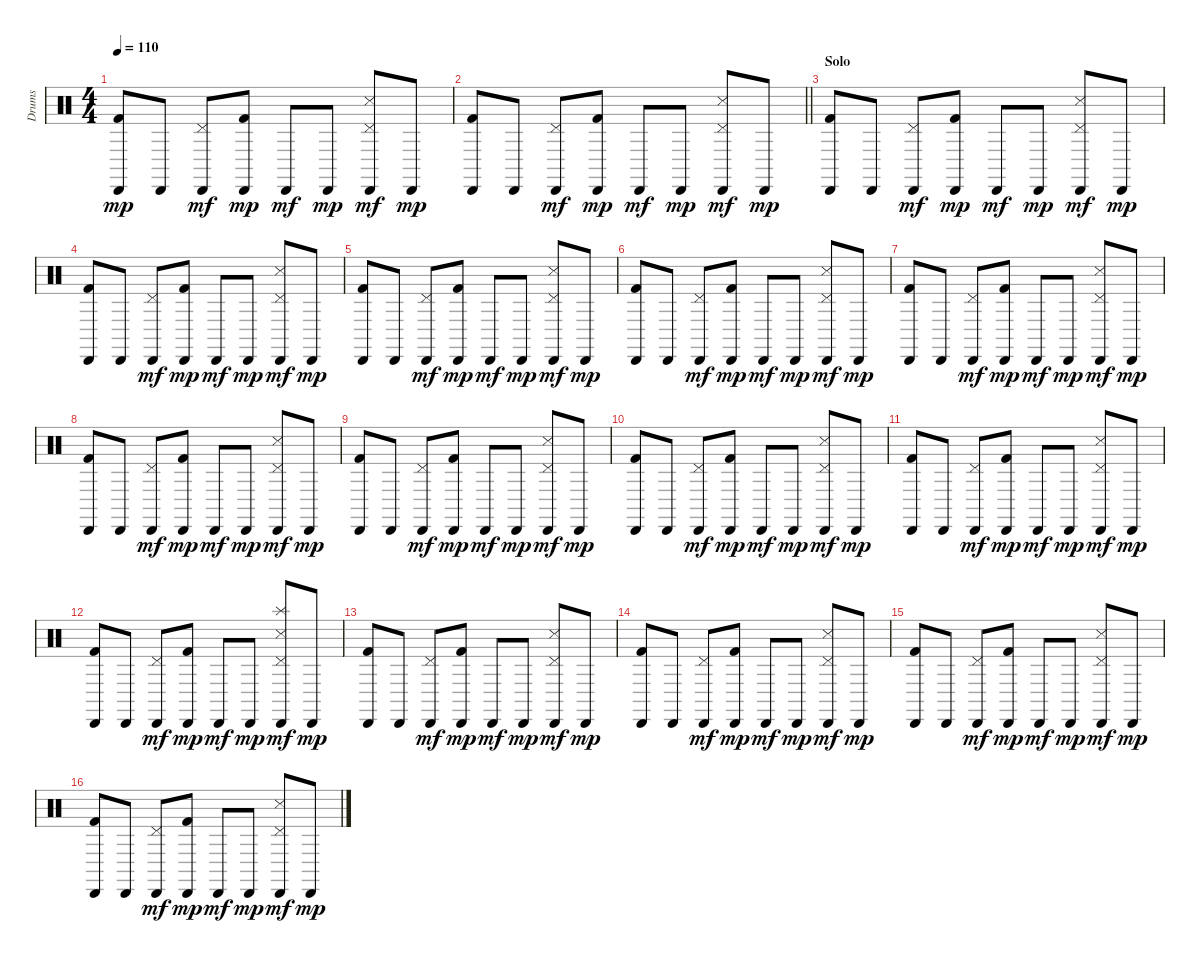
\track ("Drums" "Drums") {instrument percussion}
\staff {score}
\articulation defaults
\ts (4 4)
\tempo 110
\clef neutral
\ks c
("Cabasa (hit)" "Kick (hit) 2").8{dy mp} "Cabasa (hit)".8 ("Cabasa (hit)" "Pedal Hi-Hat (hit)").8{dy mf} ("Cabasa (hit)" "Kick (hit) 2").8{dy mp} "Cabasa (hit)".8{dy mf} "Cabasa (hit)".8{dy mp} ("Cabasa (hit)" "Pedal Hi-Hat (hit)" "Snare (side stick) 3").8{dy mf} "Cabasa (hit)".8{dy mp} |
\barLineRight lightlight
("Cabasa (hit)" "Kick (hit) 2").8 "Cabasa (hit)".8 ("Cabasa (hit)" "Pedal Hi-Hat (hit)").8{dy mf} ("Cabasa (hit)" "Kick (hit) 2").8{dy mp} "Cabasa (hit)".8{dy mf} "Cabasa (hit)".8{dy mp} ("Cabasa (hit)" "Pedal Hi-Hat (hit)" "Snare (side stick) 3").8{dy mf} "Cabasa (hit)".8{dy mp} |
\section ("" "Solo")
("Cabasa (hit)" "Kick (hit) 2").8 "Cabasa (hit)".8 ("Cabasa (hit)" "Pedal Hi-Hat (hit)").8{dy mf} ("Cabasa (hit)" "Kick (hit) 2").8{dy mp} "Cabasa (hit)".8{dy mf} "Cabasa (hit)".8{dy mp} ("Cabasa (hit)" "Pedal Hi-Hat (hit)" "Snare (side stick) 3").8{dy mf} "Cabasa (hit)".8{dy mp} |
("Cabasa (hit)" "Kick (hit) 2").8 "Cabasa (hit)".8 ("Cabasa (hit)" "Pedal Hi-Hat (hit)").8{dy mf} ("Cabasa (hit)" "Kick (hit) 2").8{dy mp} "Cabasa (hit)".8{dy mf} "Cabasa (hit)".8{dy mp} ("Cabasa (hit)" "Pedal Hi-Hat (hit)" "Snare (side stick) 3").8{dy mf} "Cabasa (hit)".8{dy mp} |
("Cabasa (hit)" "Kick (hit) 2").8 "Cabasa (hit)".8 ("Cabasa (hit)" "Pedal Hi-Hat (hit)").8{dy mf} ("Cabasa (hit)" "Kick (hit) 2").8{dy mp} "Cabasa (hit)".8{dy mf} "Cabasa (hit)".8{dy mp} ("Cabasa (hit)" "Pedal Hi-Hat (hit)" "Snare (side stick) 3").8{dy mf} "Cabasa (hit)".8{dy mp} |
("Cabasa (hit)" "Kick (hit) 2").8 "Cabasa (hit)".8 ("Cabasa (hit)" "Pedal Hi-Hat (hit)").8{dy mf} ("Cabasa (hit)" "Kick (hit) 2").8{dy mp} "Cabasa (hit)".8{dy mf} "Cabasa (hit)".8{dy mp} ("Cabasa (hit)" "Pedal Hi-Hat (hit)" "Snare (side stick) 3").8{dy mf} "Cabasa (hit)".8{dy mp} |
("Cabasa (hit)" "Kick (hit) 2").8 "Cabasa (hit)".8 ("Cabasa (hit)" "Pedal Hi-Hat (hit)").8{dy mf} ("Cabasa (hit)" "Kick (hit) 2").8{dy mp} "Cabasa (hit)".8{dy mf} "Cabasa (hit)".8{dy mp} ("Cabasa (hit)" "Pedal Hi-Hat (hit)" "Snare (side stick) 3").8{dy mf} "Cabasa (hit)".8{dy mp} |
("Cabasa (hit)" "Kick (hit) 2").8 "Cabasa (hit)".8 ("Cabasa (hit)" "Pedal Hi-Hat (hit)").8{dy mf} ("Cabasa (hit)" "Kick (hit) 2").8{dy mp} "Cabasa (hit)".8{dy mf} "Cabasa (hit)".8{dy mp} ("Cabasa (hit)" "Pedal Hi-Hat (hit)" "Snare (side stick) 3").8{dy mf} "Cabasa (hit)".8{dy mp} |
("Cabasa (hit)" "Kick (hit) 2").8 "Cabasa (hit)".8 ("Cabasa (hit)" "Pedal Hi-Hat (hit)").8{dy mf} ("Cabasa (hit)" "Kick (hit) 2").8{dy mp} "Cabasa (hit)".8{dy mf} "Cabasa (hit)".8{dy mp} ("Cabasa (hit)" "Pedal Hi-Hat (hit)" "Snare (side stick) 3").8{dy mf} "Cabasa (hit)".8{dy mp} |
("Cabasa (hit)" "Kick (hit) 2").8 "Cabasa (hit)".8 ("Cabasa (hit)" "Pedal Hi-Hat (hit)").8{dy mf} ("Cabasa (hit)" "Kick (hit) 2").8{dy mp} "Cabasa (hit)".8{dy mf} "Cabasa (hit)".8{dy mp} ("Cabasa (hit)" "Pedal Hi-Hat (hit)" "Snare (side stick) 3").8{dy mf} "Cabasa (hit)".8{dy mp} |
("Cabasa (hit)" "Kick (hit) 2").8 "Cabasa (hit)".8 ("Cabasa (hit)" "Pedal Hi-Hat (hit)").8{dy mf} ("Cabasa (hit)" "Kick (hit) 2").8{dy mp} "Cabasa (hit)".8{dy mf} "Cabasa (hit)".8{dy mp} ("Cabasa (hit)" "Pedal Hi-Hat (hit)" "Snare (side stick) 3").8{dy mf} "Cabasa (hit)".8{dy mp} |
("Cabasa (hit)" "Kick (hit) 2").8 "Cabasa (hit)".8 ("Cabasa (hit)" "Pedal Hi-Hat (hit)").8{dy mf} ("Cabasa (hit)" "Kick (hit) 2").8{dy mp} "Cabasa (hit)".8{dy mf} "Cabasa (hit)".8{dy mp} ("Cabasa (hit)" "Pedal Hi-Hat (hit)" "Snare (side stick) 3" "Splash (hit)").8{dy mf} "Cabasa (hit)".8{dy mp} |
("Cabasa (hit)" "Kick (hit) 2").8 "Cabasa (hit)".8 ("Cabasa (hit)" "Pedal Hi-Hat (hit)").8{dy mf} ("Cabasa (hit)" "Kick (hit) 2").8{dy mp} "Cabasa (hit)".8{dy mf} "Cabasa (hit)".8{dy mp} ("Cabasa (hit)" "Pedal Hi-Hat (hit)" "Snare (side stick) 3").8{dy mf} "Cabasa (hit)".8{dy mp} |
("Cabasa (hit)" "Kick (hit) 2").8 "Cabasa (hit)".8 ("Cabasa (hit)" "Pedal Hi-Hat (hit)").8{dy mf} ("Cabasa (hit)" "Kick (hit) 2").8{dy mp} "Cabasa (hit)".8{dy mf} "Cabasa (hit)".8{dy mp} ("Cabasa (hit)" "Pedal Hi-Hat (hit)" "Snare (side stick) 3").8{dy mf} "Cabasa (hit)".8{dy mp} |
("Cabasa (hit)" "Kick (hit) 2").8 "Cabasa (hit)".8 ("Cabasa (hit)" "Pedal Hi-Hat (hit)").8{dy mf} ("Cabasa (hit)" "Kick (hit) 2").8{dy mp} "Cabasa (hit)".8{dy mf} "Cabasa (hit)".8{dy mp} ("Cabasa (hit)" "Pedal Hi-Hat (hit)" "Snare (side stick) 3").8{dy mf} "Cabasa (hit)".8{dy mp} |
("Cabasa (hit)" "Kick (hit) 2").8 "Cabasa (hit)".8 ("Cabasa (hit)" "Pedal Hi-Hat (hit)").8{dy mf} ("Cabasa (hit)" "Kick (hit) 2").8{dy mp} "Cabasa (hit)".8{dy mf} "Cabasa (hit)".8{dy mp} ("Cabasa (hit)" "Pedal Hi-Hat (hit)" "Snare (side stick) 3").8{dy mf} "Cabasa (hit)".8{dy mp}
